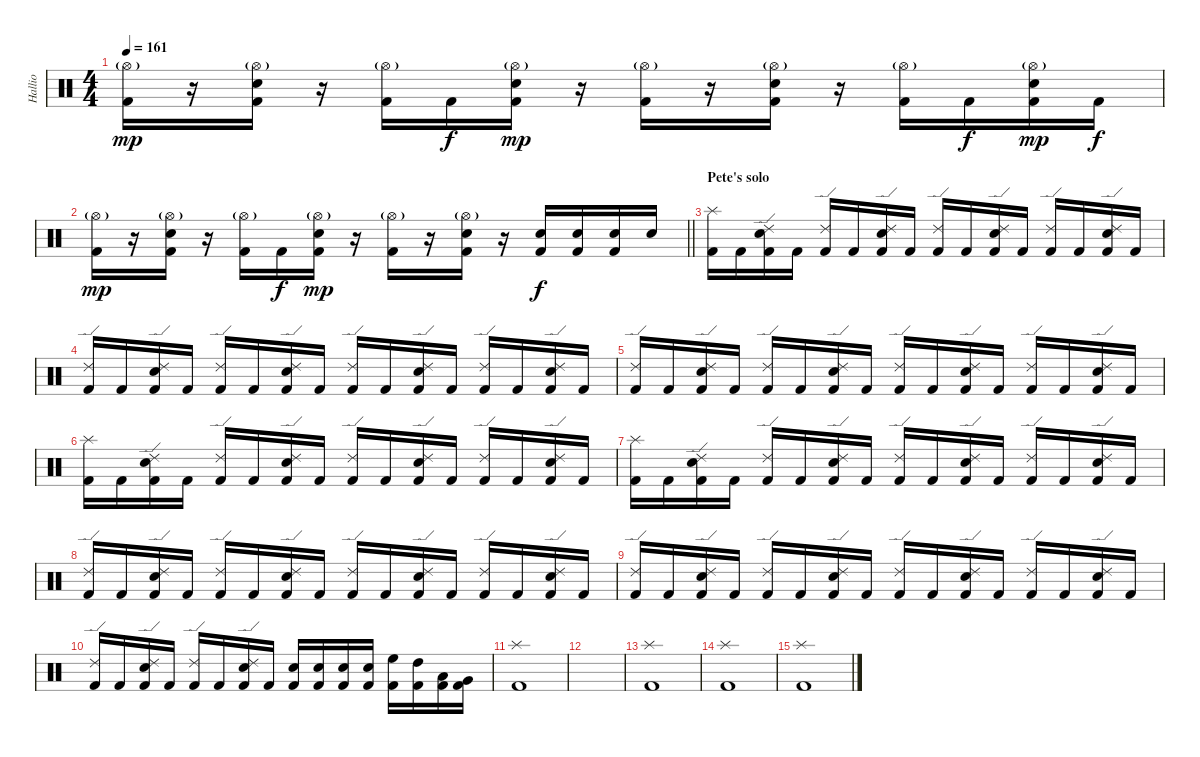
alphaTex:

\track ("Hallio" "Hallio") {instrument percussion}
\staff {score}
\articulation defaults
\ts (4 4)
\tempo 161
\clef neutral
\ks c
("Kick (hit) 2" "Hi-Hat (open)"{g}).16{dy mp} r.16 ("Kick (hit) 2" "Snare (hit) 2" "Hi-Hat (open)"{g}).16 r.16 ("Kick (hit) 2" "Hi-Hat (open)"{g}).16 "Kick (hit) 2".16{dy f} ("Kick (hit) 2" "Snare (hit) 2" "Hi-Hat (open)"{g}).16{dy mp} r.16 ("Kick (hit) 2" "Hi-Hat (open)"{g}).16 r.16 ("Kick (hit) 2" "Snare (hit) 2" "Hi-Hat (open)"{g}).16 r.16 ("Kick (hit) 2" "Hi-Hat (open)"{g}).16 "Kick (hit) 2".16{dy f} ("Kick (hit) 2" "Snare (hit) 2" "Hi-Hat (open)"{g}).16{dy mp} "Kick (hit) 2".16{dy f} |
\barLineRight lightlight
("Kick (hit) 2" "Hi-Hat (open)"{g}).16{dy mp} r.16 ("Kick (hit) 2" "Snare (hit) 2" "Hi-Hat (open)"{g}).16 r.16 ("Kick (hit) 2" "Hi-Hat (open)"{g}).16 "Kick (hit) 2".16{dy f} ("Kick (hit) 2" "Snare (hit) 2" "Hi-Hat (open)"{g}).16{dy mp} r.16 ("Kick (hit) 2" "Hi-Hat (open)"{g}).16 r.16 ("Kick (hit) 2" "Snare (hit) 2" "Hi-Hat (open)"{g}).16 r.16 ("Kick (hit) 2" "Snare (hit) 2").16{dy f} ("Kick (hit) 2" "Snare (hit) 2").16 ("Kick (hit) 2" "Snare (hit) 2").16 "Snare (hit) 2".16 |
\section ("" "Pete's solo")
("Kick (hit) 2" "Splash (hit)").16 "Kick (hit) 2".16 ("Kick (hit) 2" "Snare (hit) 2" "Ride (edge) 2").16 "Kick (hit) 2".16 ("Kick (hit) 2" "Ride (edge) 2").16 "Kick (hit) 2".16 ("Kick (hit) 2" "Snare (hit) 2" "Ride (edge) 2").16 "Kick (hit) 2".16 ("Kick (hit) 2" "Ride (edge) 2").16 "Kick (hit) 2".16 ("Kick (hit) 2" "Snare (hit) 2" "Ride (edge) 2").16 "Kick (hit) 2".16 ("Kick (hit) 2" "Ride (edge) 2").16 "Kick (hit) 2".16 ("Kick (hit) 2" "Snare (hit) 2" "Ride (edge) 2").16 "Kick (hit) 2".16 |
("Kick (hit) 2" "Ride (edge) 2").16 "Kick (hit) 2".16 ("Kick (hit) 2" "Snare (hit) 2" "Ride (edge) 2").16 "Kick (hit) 2".16 ("Kick (hit) 2" "Ride (edge) 2").16 "Kick (hit) 2".16 ("Kick (hit) 2" "Snare (hit) 2" "Ride (edge) 2").16 "Kick (hit) 2".16 ("Kick (hit) 2" "Ride (edge) 2").16 "Kick (hit) 2".16 ("Kick (hit) 2" "Snare (hit) 2" "Ride (edge) 2").16 "Kick (hit) 2".16 ("Kick (hit) 2" "Ride (edge) 2").16 "Kick (hit) 2".16 ("Kick (hit) 2" "Snare (hit) 2" "Ride (edge) 2").16 "Kick (hit) 2".16 |
("Kick (hit) 2" "Ride (edge) 2").16 "Kick (hit) 2".16 ("Kick (hit) 2" "Snare (hit) 2" "Ride (edge) 2").16 "Kick (hit) 2".16 ("Kick (hit) 2" "Ride (edge) 2").16 "Kick (hit) 2".16 ("Kick (hit) 2" "Snare (hit) 2" "Ride (edge) 2").16 "Kick (hit) 2".16 ("Kick (hit) 2" "Ride (edge) 2").16 "Kick (hit) 2".16 ("Kick (hit) 2" "Snare (hit) 2" "Ride (edge) 2").16 "Kick (hit) 2".16 ("Kick (hit) 2" "Ride (edge) 2").16 "Kick (hit) 2".16 ("Kick (hit) 2" "Snare (hit) 2" "Ride (edge) 2").16 "Kick (hit) 2".16 |
("Kick (hit) 2" "Splash (hit)").16 "Kick (hit) 2".16 ("Kick (hit) 2" "Snare (hit) 2" "Ride (edge) 2").16 "Kick (hit) 2".16 ("Kick (hit) 2" "Ride (edge) 2").16 "Kick (hit) 2".16 ("Kick (hit) 2" "Snare (hit) 2" "Ride (edge) 2").16 "Kick (hit) 2".16 ("Kick (hit) 2" "Ride (edge) 2").16 "Kick (hit) 2".16 ("Kick (hit) 2" "Snare (hit) 2" "Ride (edge) 2").16 "Kick (hit) 2".16 ("Kick (hit) 2" "Ride (edge) 2").16 "Kick (hit) 2".16 ("Kick (hit) 2" "Snare (hit) 2" "Ride (edge) 2").16 "Kick (hit) 2".16 |
("Kick (hit) 2" "Splash (hit)").16 "Kick (hit) 2".16 ("Kick (hit) 2" "Snare (hit) 2" "Ride (edge) 2").16 "Kick (hit) 2".16 ("Kick (hit) 2" "Ride (edge) 2").16 "Kick (hit) 2".16 ("Kick (hit) 2" "Snare (hit) 2" "Ride (edge) 2").16 "Kick (hit) 2".16 ("Kick (hit) 2" "Ride (edge) 2").16 "Kick (hit) 2".16 ("Kick (hit) 2" "Snare (hit) 2" "Ride (edge) 2").16 "Kick (hit) 2".16 ("Kick (hit) 2" "Ride (edge) 2").16 "Kick (hit) 2".16 ("Kick (hit) 2" "Snare (hit) 2" "Ride (edge) 2").16 "Kick (hit) 2".16 |
("Kick (hit) 2" "Ride (edge) 2").16 "Kick (hit) 2".16 ("Kick (hit) 2" "Snare (hit) 2" "Ride (edge) 2").16 "Kick (hit) 2".16 ("Kick (hit) 2" "Ride (edge) 2").16 "Kick (hit) 2".16 ("Kick (hit) 2" "Snare (hit) 2" "Ride (edge) 2").16 "Kick (hit) 2".16 ("Kick (hit) 2" "Ride (edge) 2").16 "Kick (hit) 2".16 ("Kick (hit) 2" "Snare (hit) 2" "Ride (edge) 2").16 "Kick (hit) 2".16 ("Kick (hit) 2" "Ride (edge) 2").16 "Kick (hit) 2".16 ("Kick (hit) 2" "Snare (hit) 2" "Ride (edge) 2").16 "Kick (hit) 2".16 |
("Kick (hit) 2" "Ride (edge) 2").16 "Kick (hit) 2".16 ("Kick (hit) 2" "Snare (hit) 2" "Ride (edge) 2").16 "Kick (hit) 2".16 ("Kick (hit) 2" "Ride (edge) 2").16 "Kick (hit) 2".16 ("Kick (hit) 2" "Snare (hit) 2" "Ride (edge) 2").16 "Kick (hit) 2".16 ("Kick (hit) 2" "Ride (edge) 2").16 "Kick (hit) 2".16 ("Kick (hit) 2" "Snare (hit) 2" "Ride (edge) 2").16 "Kick (hit) 2".16 ("Kick (hit) 2" "Ride (edge) 2").16 "Kick (hit) 2".16 ("Kick (hit) 2" "Snare (hit) 2" "Ride (edge) 2").16 "Kick (hit) 2".16 |
("Kick (hit) 2" "Ride (edge) 2").16 "Kick (hit) 2".16 ("Kick (hit) 2" "Snare (hit) 2" "Ride (edge) 2").16 "Kick (hit) 2".16 ("Kick (hit) 2" "Ride (edge) 2").16 "Kick (hit) 2".16 ("Kick (hit) 2" "Snare (hit) 2" "Ride (edge) 2").16 "Kick (hit) 2".16 ("Kick (hit) 2" "Snare (hit) 2").16 ("Kick (hit) 2" "Snare (hit) 2").16 ("Kick (hit) 2" "Snare (hit) 2").16 ("Kick (hit) 2" "Snare (hit) 2").16 ("Kick (hit) 2" "High Floor Tom (hit)").16 ("Kick (hit) 2" "High Tom (hit)").16 ("Kick (hit) 2" "Low Tom (hit)").16 ("Kick (hit) 2" "Very Low Tom (hit)").16 |
("Kick (hit) 2" "Splash (hit)").1 |
|
("Kick (hit) 2" "Splash (hit)").1 |
("Kick (hit) 2" "Splash (hit)").1 |
("Kick (hit) 2" "Splash (hit)").1
